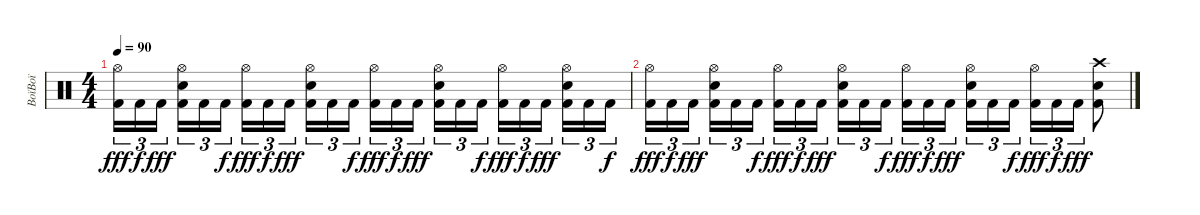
\track ("BoïBoï" "BoïBoï") {instrument percussion}
\staff {score}
\articulation defaults
\ts (4 4)
\tempo 90
\clef neutral
\ks c
("Hi-Hat (open)" "Kick (hit) 2").16{tu (3 2) dy fff} "Kick (hit) 2".16{tu (3 2) dy f} "Kick (hit) 2".16{tu (3 2) dy fff beam splitsecondary} ("Hi-Hat (open)" "Electric Snare (hit)" "Kick (hit) 2").16{tu (3 2)} "Kick (hit) 2".16{tu (3 2)} "Kick (hit) 2".16{tu (3 2) dy f} ("Hi-Hat (open)" "Kick (hit) 2").16{tu (3 2) dy fff} "Kick (hit) 2".16{tu (3 2) dy f} "Kick (hit) 2".16{tu (3 2) dy fff beam splitsecondary} ("Hi-Hat (open)" "Electric Snare (hit)" "Kick (hit) 2").16{tu (3 2)} "Kick (hit) 2".16{tu (3 2)} "Kick (hit) 2".16{tu (3 2) dy f} ("Hi-Hat (open)" "Kick (hit) 2").16{tu (3 2) dy fff} "Kick (hit) 2".16{tu (3 2) dy f} "Kick (hit) 2".16{tu (3 2) dy fff beam splitsecondary} ("Hi-Hat (open)" "Electric Snare (hit)" "Kick (hit) 2").16{tu (3 2)} "Kick (hit) 2".16{tu (3 2)} "Kick (hit) 2".16{tu (3 2) dy f} ("Hi-Hat (open)" "Kick (hit) 2").16{tu (3 2) dy fff} "Kick (hit) 2".16{tu (3 2) dy f} "Kick (hit) 2".16{tu (3 2) dy fff beam splitsecondary} ("Hi-Hat (open)" "Electric Snare (hit)" "Kick (hit) 2").16{tu (3 2)} "Kick (hit) 2".16{tu (3 2)} "Kick (hit) 2".16{tu (3 2) dy f} |
("Hi-Hat (open)" "Kick (hit) 2").16{tu (3 2) dy fff} "Kick (hit) 2".16{tu (3 2) dy f} "Kick (hit) 2".16{tu (3 2) dy fff beam splitsecondary} ("Hi-Hat (open)" "Electric Snare (hit)" "Kick (hit) 2").16{tu (3 2)} "Kick (hit) 2".16{tu (3 2)} "Kick (hit) 2".16{tu (3 2) dy f} ("Hi-Hat (open)" "Kick (hit) 2").16{tu (3 2) dy fff} "Kick (hit) 2".16{tu (3 2) dy f} "Kick (hit) 2".16{tu (3 2) dy fff beam splitsecondary} ("Hi-Hat (open)" "Electric Snare (hit)" "Kick (hit) 2").16{tu (3 2)} "Kick (hit) 2".16{tu (3 2)} "Kick (hit) 2".16{tu (3 2) dy f} ("Hi-Hat (open)" "Kick (hit) 2").16{tu (3 2) dy fff} "Kick (hit) 2".16{tu (3 2) dy f} "Kick (hit) 2".16{tu (3 2) dy fff beam splitsecondary} ("Hi-Hat (open)" "Electric Snare (hit)" "Kick (hit) 2").16{tu (3 2)} "Kick (hit) 2".16{tu (3 2)} "Kick (hit) 2".16{tu (3 2) dy f} ("Hi-Hat (open)" "Kick (hit) 2").16{tu (3 2) dy fff} "Kick (hit) 2".16{tu (3 2) dy f} "Kick (hit) 2".16{tu (3 2) dy fff} ("Crash high (hit)" "Electric Snare (hit)" "Kick (hit) 2").8
